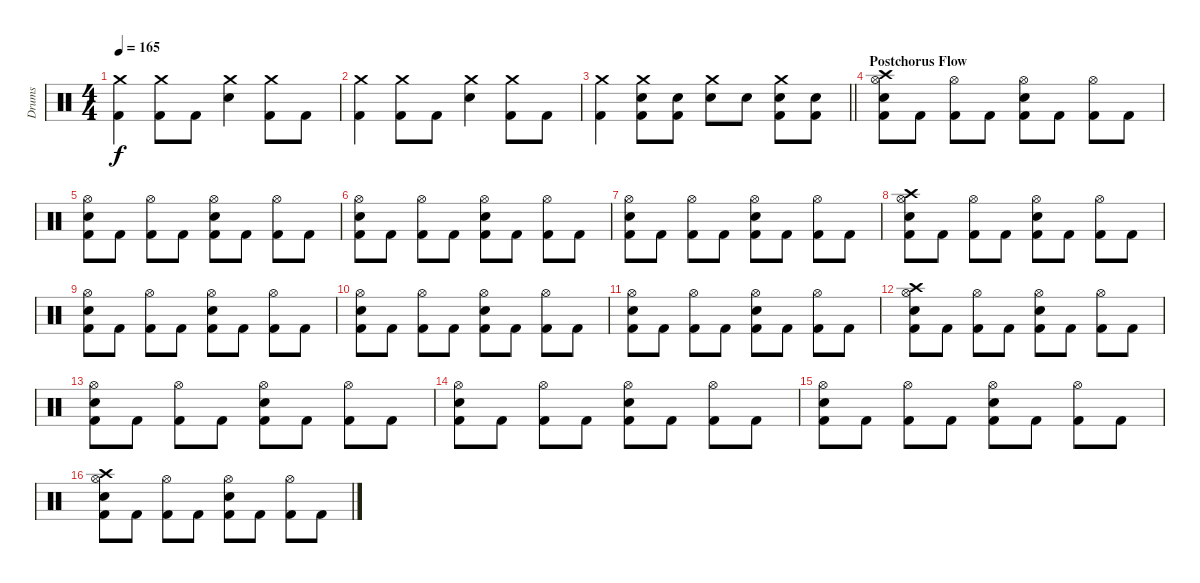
\track ("Drums" "Drums") {instrument percussion}
\staff {score}
\articulation defaults
\ts (4 4)
\tempo 165
\clef neutral
\ks c
("Crash medium (hit)" "Kick (hit) 2").4{dy f} ("Crash medium (hit)" "Kick (hit) 2").8 "Kick (hit) 2".8 ("Crash medium (hit)" "Snare (hit) 2").4 ("Crash medium (hit)" "Kick (hit) 2").8 "Kick (hit) 2".8 |
("Crash medium (hit)" "Kick (hit) 2").4 ("Crash medium (hit)" "Kick (hit) 2").8 "Kick (hit) 2".8 ("Crash medium (hit)" "Snare (hit) 2").4 ("Crash medium (hit)" "Kick (hit) 2").8 "Kick (hit) 2".8 |
\barLineRight lightlight
("Crash medium (hit)" "Kick (hit) 2").4 ("Crash medium (hit)" "Snare (hit) 2" "Kick (hit) 2").8 ("Snare (hit) 2" "Kick (hit) 2").8 ("Crash medium (hit)" "Snare (hit) 2").8 "Snare (hit) 2".8 ("Crash medium (hit)" "Snare (hit) 2" "Kick (hit) 2").8 ("Snare (hit) 2" "Kick (hit) 2").8 |
\section ("" "Postchorus Flow")
("Crash high (hit)" "Hi-Hat (open)" "Snare (hit) 2" "Kick (hit) 2").8 "Kick (hit) 2".8 ("Hi-Hat (open)" "Kick (hit) 2").8 "Kick (hit) 2".8 ("Hi-Hat (open)" "Snare (hit) 2" "Kick (hit) 2").8 "Kick (hit) 2".8 ("Hi-Hat (open)" "Kick (hit) 2").8 "Kick (hit) 2".8 |
("Hi-Hat (open)" "Snare (hit) 2" "Kick (hit) 2").8 "Kick (hit) 2".8 ("Hi-Hat (open)" "Kick (hit) 2").8 "Kick (hit) 2".8 ("Hi-Hat (open)" "Snare (hit) 2" "Kick (hit) 2").8 "Kick (hit) 2".8 ("Hi-Hat (open)" "Kick (hit) 2").8 "Kick (hit) 2".8 |
("Hi-Hat (open)" "Snare (hit) 2" "Kick (hit) 2").8 "Kick (hit) 2".8 ("Hi-Hat (open)" "Kick (hit) 2").8 "Kick (hit) 2".8 ("Hi-Hat (open)" "Snare (hit) 2" "Kick (hit) 2").8 "Kick (hit) 2".8 ("Hi-Hat (open)" "Kick (hit) 2").8 "Kick (hit) 2".8 |
("Hi-Hat (open)" "Snare (hit) 2" "Kick (hit) 2").8 "Kick (hit) 2".8 ("Hi-Hat (open)" "Kick (hit) 2").8 "Kick (hit) 2".8 ("Hi-Hat (open)" "Snare (hit) 2" "Kick (hit) 2").8 "Kick (hit) 2".8 ("Hi-Hat (open)" "Kick (hit) 2").8 "Kick (hit) 2".8 |
("Crash high (hit)" "Hi-Hat (open)" "Snare (hit) 2" "Kick (hit) 2").8 "Kick (hit) 2".8 ("Hi-Hat (open)" "Kick (hit) 2").8 "Kick (hit) 2".8 ("Hi-Hat (open)" "Snare (hit) 2" "Kick (hit) 2").8 "Kick (hit) 2".8 ("Hi-Hat (open)" "Kick (hit) 2").8 "Kick (hit) 2".8 |
("Hi-Hat (open)" "Snare (hit) 2" "Kick (hit) 2").8 "Kick (hit) 2".8 ("Hi-Hat (open)" "Kick (hit) 2").8 "Kick (hit) 2".8 ("Hi-Hat (open)" "Snare (hit) 2" "Kick (hit) 2").8 "Kick (hit) 2".8 ("Hi-Hat (open)" "Kick (hit) 2").8 "Kick (hit) 2".8 |
("Hi-Hat (open)" "Snare (hit) 2" "Kick (hit) 2").8 "Kick (hit) 2".8 ("Hi-Hat (open)" "Kick (hit) 2").8 "Kick (hit) 2".8 ("Hi-Hat (open)" "Snare (hit) 2" "Kick (hit) 2").8 "Kick (hit) 2".8 ("Hi-Hat (open)" "Kick (hit) 2").8 "Kick (hit) 2".8 |
("Hi-Hat (open)" "Snare (hit) 2" "Kick (hit) 2").8 "Kick (hit) 2".8 ("Hi-Hat (open)" "Kick (hit) 2").8 "Kick (hit) 2".8 ("Hi-Hat (open)" "Snare (hit) 2" "Kick (hit) 2").8 "Kick (hit) 2".8 ("Hi-Hat (open)" "Kick (hit) 2").8 "Kick (hit) 2".8 |
("Crash high (hit)" "Hi-Hat (open)" "Snare (hit) 2" "Kick (hit) 2").8 "Kick (hit) 2".8 ("Hi-Hat (open)" "Kick (hit) 2").8 "Kick (hit) 2".8 ("Hi-Hat (open)" "Snare (hit) 2" "Kick (hit) 2").8 "Kick (hit) 2".8 ("Hi-Hat (open)" "Kick (hit) 2").8 "Kick (hit) 2".8 |
("Hi-Hat (open)" "Snare (hit) 2" "Kick (hit) 2").8 "Kick (hit) 2".8 ("Hi-Hat (open)" "Kick (hit) 2").8 "Kick (hit) 2".8 ("Hi-Hat (open)" "Snare (hit) 2" "Kick (hit) 2").8 "Kick (hit) 2".8 ("Hi-Hat (open)" "Kick (hit) 2").8 "Kick (hit) 2".8 |
("Hi-Hat (open)" "Snare (hit) 2" "Kick (hit) 2").8 "Kick (hit) 2".8 ("Hi-Hat (open)" "Kick (hit) 2").8 "Kick (hit) 2".8 ("Hi-Hat (open)" "Snare (hit) 2" "Kick (hit) 2").8 "Kick (hit) 2".8 ("Hi-Hat (open)" "Kick (hit) 2").8 "Kick (hit) 2".8 |
("Hi-Hat (open)" "Snare (hit) 2" "Kick (hit) 2").8 "Kick (hit) 2".8 ("Hi-Hat (open)" "Kick (hit) 2").8 "Kick (hit) 2".8 ("Hi-Hat (open)" "Snare (hit) 2" "Kick (hit) 2").8 "Kick (hit) 2".8 ("Hi-Hat (open)" "Kick (hit) 2").8 "Kick (hit) 2".8 |
("Crash high (hit)" "Hi-Hat (open)" "Snare (hit) 2" "Kick (hit) 2").8 "Kick (hit) 2".8 ("Hi-Hat (open)" "Kick (hit) 2").8 "Kick (hit) 2".8 ("Hi-Hat (open)" "Snare (hit) 2" "Kick (hit) 2").8 "Kick (hit) 2".8 ("Hi-Hat (open)" "Kick (hit) 2").8 "Kick (hit) 2".8
